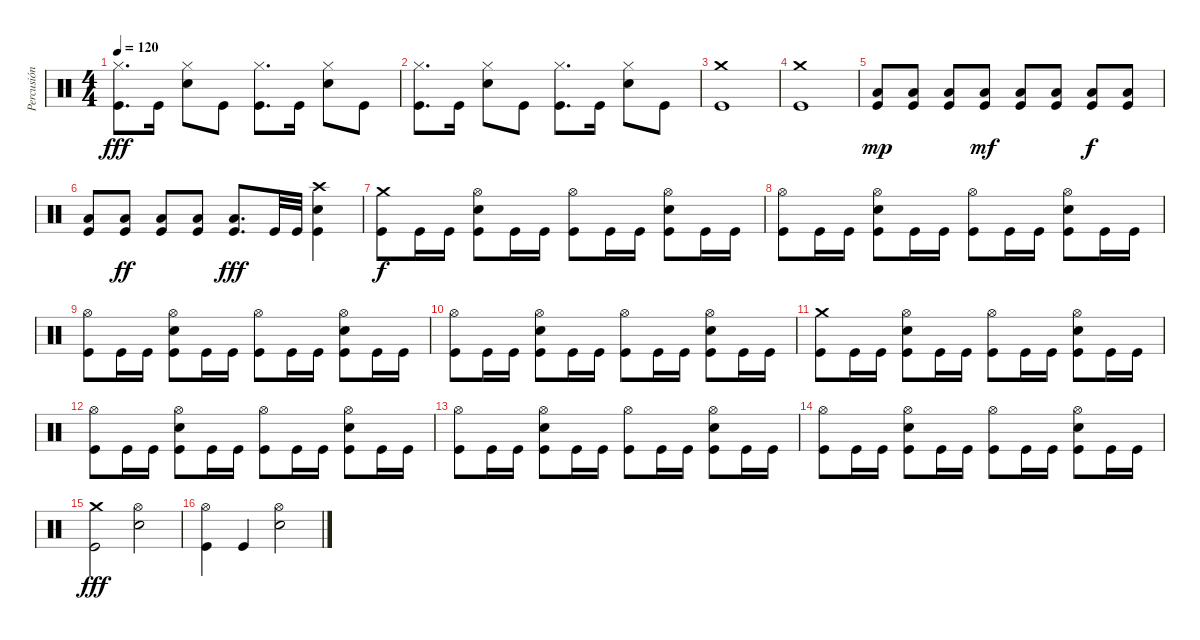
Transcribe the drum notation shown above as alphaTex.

\track ("Percusión" "Percusión") {instrument percussion}
\staff {score}
\articulation defaults
\ts (4 4)
\tempo 120
\clef neutral
\ks c
("Hi-Hat (closed)" "Kick (hit)").8{d dy fff} "Kick (hit)".16 ("Hi-Hat (closed)" "Snare (hit) 2").8 "Kick (hit)".8 ("Hi-Hat (closed)" "Kick (hit)").8{d} "Kick (hit)".16 ("Hi-Hat (closed)" "Snare (hit) 2").8 "Kick (hit)".8 |
("Hi-Hat (closed)" "Kick (hit)").8{d} "Kick (hit)".16 ("Hi-Hat (closed)" "Snare (hit) 2").8 "Kick (hit)".8 ("Hi-Hat (closed)" "Kick (hit)").8{d} "Kick (hit)".16 ("Hi-Hat (closed)" "Snare (hit) 2").8 "Kick (hit)".8 |
("Crash medium (hit)" "Kick (hit)").1 |
("Crash medium (hit)" "Kick (hit)").1 |
("Low Tom (hit)" "Kick (hit)").8{dy mp} ("Low Tom (hit)" "Kick (hit)").8 ("Low Tom (hit)" "Kick (hit)").8 ("Low Tom (hit)" "Kick (hit)").8{dy mf} ("Low Tom (hit)" "Kick (hit)").8 ("Low Tom (hit)" "Kick (hit)").8 ("Low Tom (hit)" "Kick (hit)").8{dy f} ("Low Tom (hit)" "Kick (hit)").8 |
("Low Tom (hit)" "Kick (hit)").8 ("Low Tom (hit)" "Kick (hit)").8{dy ff} ("Low Tom (hit)" "Kick (hit)").8 ("Low Tom (hit)" "Kick (hit)").8 ("Low Tom (hit)" "Kick (hit)").8{d dy fff} "Kick (hit)".32 "Kick (hit)".32 ("Crash high (hit)" "Snare (hit) 2" "Kick (hit)").4 |
("Crash medium (hit)" "Kick (hit)").8{dy f} "Kick (hit)".16 "Kick (hit)".16 ("Hi-Hat (open)" "Snare (hit) 2" "Kick (hit)").8 "Kick (hit)".16 "Kick (hit)".16 ("Hi-Hat (open)" "Kick (hit)").8 "Kick (hit)".16 "Kick (hit)".16 ("Hi-Hat (open)" "Snare (hit) 2" "Kick (hit)").8 "Kick (hit)".16 "Kick (hit)".16 |
("Hi-Hat (open)" "Kick (hit)").8 "Kick (hit)".16 "Kick (hit)".16 ("Hi-Hat (open)" "Snare (hit) 2" "Kick (hit)").8 "Kick (hit)".16 "Kick (hit)".16 ("Hi-Hat (open)" "Kick (hit)").8 "Kick (hit)".16 "Kick (hit)".16 ("Hi-Hat (open)" "Snare (hit) 2" "Kick (hit)").8 "Kick (hit)".16 "Kick (hit)".16 |
("Hi-Hat (open)" "Kick (hit)").8 "Kick (hit)".16 "Kick (hit)".16 ("Hi-Hat (open)" "Snare (hit) 2" "Kick (hit)").8 "Kick (hit)".16 "Kick (hit)".16 ("Hi-Hat (open)" "Kick (hit)").8 "Kick (hit)".16 "Kick (hit)".16 ("Hi-Hat (open)" "Snare (hit) 2" "Kick (hit)").8 "Kick (hit)".16 "Kick (hit)".16 |
("Hi-Hat (open)" "Kick (hit)").8 "Kick (hit)".16 "Kick (hit)".16 ("Hi-Hat (open)" "Snare (hit) 2" "Kick (hit)").8 "Kick (hit)".16 "Kick (hit)".16 ("Hi-Hat (open)" "Kick (hit)").8 "Kick (hit)".16 "Kick (hit)".16 ("Hi-Hat (open)" "Snare (hit) 2" "Kick (hit)").8 "Kick (hit)".16 "Kick (hit)".16 |
("Crash medium (hit)" "Kick (hit)").8 "Kick (hit)".16 "Kick (hit)".16 ("Hi-Hat (open)" "Snare (hit) 2" "Kick (hit)").8 "Kick (hit)".16 "Kick (hit)".16 ("Hi-Hat (open)" "Kick (hit)").8 "Kick (hit)".16 "Kick (hit)".16 ("Hi-Hat (open)" "Snare (hit) 2" "Kick (hit)").8 "Kick (hit)".16 "Kick (hit)".16 |
("Hi-Hat (open)" "Kick (hit)").8 "Kick (hit)".16 "Kick (hit)".16 ("Hi-Hat (open)" "Snare (hit) 2" "Kick (hit)").8 "Kick (hit)".16 "Kick (hit)".16 ("Hi-Hat (open)" "Kick (hit)").8 "Kick (hit)".16 "Kick (hit)".16 ("Hi-Hat (open)" "Snare (hit) 2" "Kick (hit)").8 "Kick (hit)".16 "Kick (hit)".16 |
("Hi-Hat (open)" "Kick (hit)").8 "Kick (hit)".16 "Kick (hit)".16 ("Hi-Hat (open)" "Snare (hit) 2" "Kick (hit)").8 "Kick (hit)".16 "Kick (hit)".16 ("Hi-Hat (open)" "Kick (hit)").8 "Kick (hit)".16 "Kick (hit)".16 ("Hi-Hat (open)" "Snare (hit) 2" "Kick (hit)").8 "Kick (hit)".16 "Kick (hit)".16 |
("Hi-Hat (open)" "Kick (hit)").8 "Kick (hit)".16 "Kick (hit)".16 ("Hi-Hat (open)" "Snare (hit) 2" "Kick (hit)").8 "Kick (hit)".16 "Kick (hit)".16 ("Hi-Hat (open)" "Kick (hit)").8 "Kick (hit)".16 "Kick (hit)".16 ("Hi-Hat (open)" "Snare (hit) 2" "Kick (hit)").8 "Kick (hit)".16 "Kick (hit)".16 |
("Crash medium (hit)" "Kick (hit)").2{dy fff} ("Hi-Hat (open)" "Snare (hit) 2").2 |
("Hi-Hat (open)" "Kick (hit)").4 "Kick (hit)".4 ("Hi-Hat (open)" "Snare (hit) 2").2
